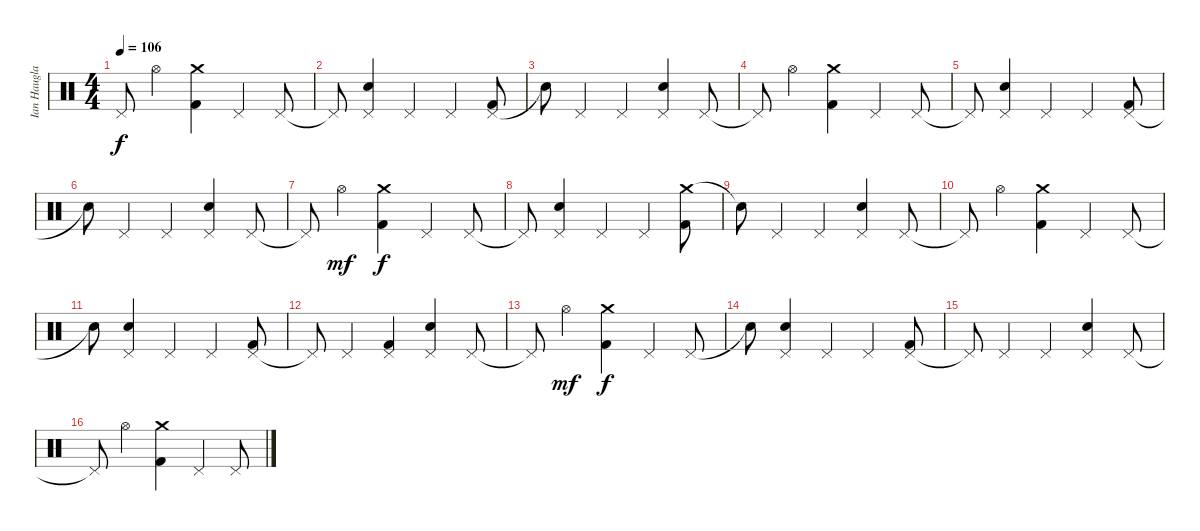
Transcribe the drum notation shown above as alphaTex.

\track ("Ian Haugland - Drums" "Ian Haugla") {instrument percussion}
\staff {score}
\articulation defaults
\ts (4 4)
\tempo 106
\clef neutral
\ks c "Pedal Hi-Hat (hit)"{t}.8{dy f} "Hi-Hat (open)".4
("Crash medium (hit)" "Kick (hit) 2").4 "Pedal Hi-Hat (hit)".4 "Pedal Hi-Hat (hit)".8 |
"Pedal Hi-Hat (hit)"{t}.8 ("Pedal Hi-Hat (hit)" "Snare (hit) 2").4 "Pedal Hi-Hat (hit)".4 "Pedal Hi-Hat (hit)".4 ("Pedal Hi-Hat (hit)" "Kick (hit) 2").8 |
"Snare (hit)"{t}.8 "Pedal Hi-Hat (hit)".4 "Pedal Hi-Hat (hit)".4 ("Pedal Hi-Hat (hit)" "Snare (hit) 2").4 "Pedal Hi-Hat (hit)".8 |
"Pedal Hi-Hat (hit)"{t}.8 "Hi-Hat (open)".4 ("Crash medium (hit)" "Kick (hit) 2").4 "Pedal Hi-Hat (hit)".4 "Pedal Hi-Hat (hit)".8 |
"Pedal Hi-Hat (hit)"{t}.8 ("Pedal Hi-Hat (hit)" "Snare (hit) 2").4 "Pedal Hi-Hat (hit)".4 "Pedal Hi-Hat (hit)".4 ("Pedal Hi-Hat (hit)" "Kick (hit) 2").8 |
"Snare (hit)"{t}.8 "Pedal Hi-Hat (hit)".4 "Pedal Hi-Hat (hit)".4 ("Pedal Hi-Hat (hit)" "Snare (hit) 2").4 "Pedal Hi-Hat (hit)".8 |
"Pedal Hi-Hat (hit)"{t}.8 "Hi-Hat (open)".4{dy mf} ("Crash medium (hit)" "Kick (hit) 2").4{dy f} "Pedal Hi-Hat (hit)".4 "Pedal Hi-Hat (hit)".8 |
"Pedal Hi-Hat (hit)"{t}.8 ("Pedal Hi-Hat (hit)" "Snare (hit) 2").4 "Pedal Hi-Hat (hit)".4 "Pedal Hi-Hat (hit)".4 ("Crash medium (hit)" "Kick (hit) 2").8 |
"Snare (hit)"{t}.8 "Pedal Hi-Hat (hit)".4 "Pedal Hi-Hat (hit)".4 ("Pedal Hi-Hat (hit)" "Snare (hit) 2").4 "Pedal Hi-Hat (hit)".8 |
"Pedal Hi-Hat (hit)"{t}.8 "Hi-Hat (open)".4 ("Crash medium (hit)" "Kick (hit) 2").4 "Pedal Hi-Hat (hit)".4 "Pedal Hi-Hat (hit)".8 |
"Snare (hit)"{t}.8 ("Pedal Hi-Hat (hit)" "Snare (hit) 2").4 "Pedal Hi-Hat (hit)".4 "Pedal Hi-Hat (hit)".4 ("Pedal Hi-Hat (hit)" "Kick (hit) 2").8 |
"Pedal Hi-Hat (hit)"{t}.8 "Pedal Hi-Hat (hit)".4 ("Pedal Hi-Hat (hit)" "Kick (hit) 2").4 ("Pedal Hi-Hat (hit)" "Snare (hit) 2").4 "Pedal Hi-Hat (hit)".8 |
"Pedal Hi-Hat (hit)"{t}.8 "Hi-Hat (open)".4{dy mf} ("Crash medium (hit)" "Kick (hit) 2").4{dy f} "Pedal Hi-Hat (hit)".4 "Pedal Hi-Hat (hit)".8 |
"Snare (hit)"{t}.8 ("Pedal Hi-Hat (hit)" "Snare (hit) 2").4 "Pedal Hi-Hat (hit)".4 "Pedal Hi-Hat (hit)".4 ("Pedal Hi-Hat (hit)" "Kick (hit) 2").8 |
"Pedal Hi-Hat (hit)"{t}.8 "Pedal Hi-Hat (hit)".4 "Pedal Hi-Hat (hit)".4 ("Pedal Hi-Hat (hit)" "Snare (hit) 2").4 "Pedal Hi-Hat (hit)".8 |
"Pedal Hi-Hat (hit)"{t}.8 "Hi-Hat (open)".4 ("Crash medium (hit)" "Kick (hit) 2").4 "Pedal Hi-Hat (hit)".4 "Pedal Hi-Hat (hit)".8
